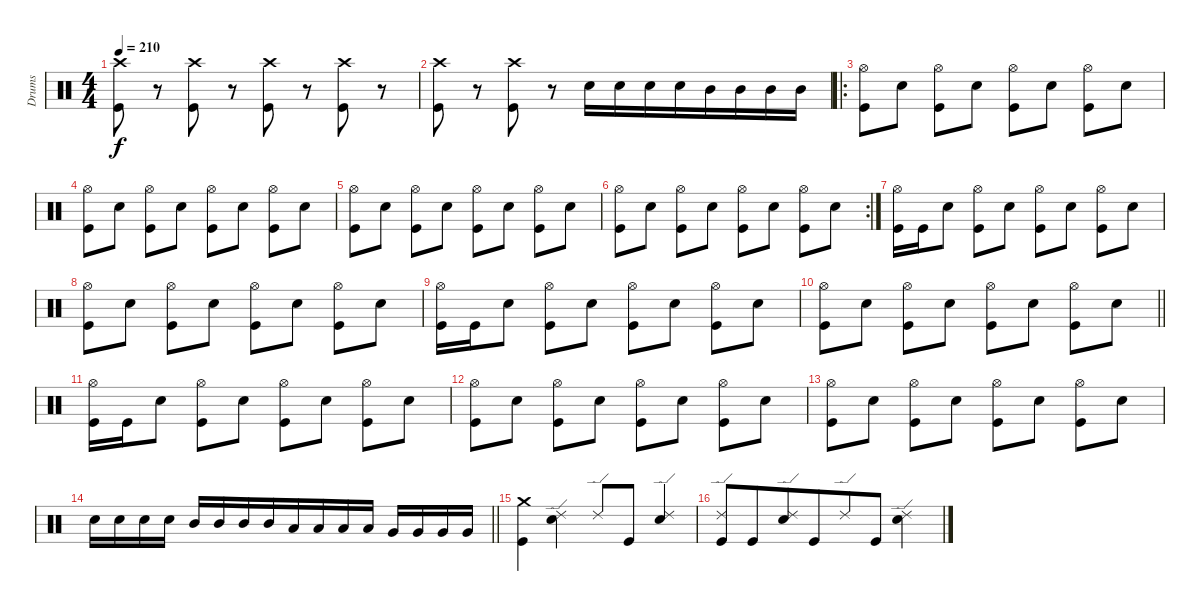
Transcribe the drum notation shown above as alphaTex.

\track ("Drums" "Drums") {instrument percussion}
\staff {score}
\articulation defaults
\ts (4 4)
\tempo 210
\clef neutral
\ks c
("Crash high (hit)" "Kick (hit)").8{dy f} r.8 ("Crash high (hit)" "Kick (hit)").8 r.8 ("Crash high (hit)" "Kick (hit)").8 r.8 ("Crash high (hit)" "Kick (hit)").8 r.8 |
("Crash high (hit)" "Kick (hit)").8 r.8 ("Crash high (hit)" "Kick (hit)").8 r.8{beam merge} "Electric Snare (hit)".16{beam merge} "Electric Snare (hit)".16 "Electric Snare (hit)".16 "Electric Snare (hit)".16{beam merge} "Mid Tom (hit)".16 "Mid Tom (hit)".16 "Mid Tom (hit)".16 "Mid Tom (hit)".16 |
\ro
("Hi-Hat (open)" "Kick (hit)").8 "Electric Snare (hit)".8 ("Hi-Hat (open)" "Kick (hit)").8 "Electric Snare (hit)".8 ("Hi-Hat (open)" "Kick (hit)").8 "Electric Snare (hit)".8 ("Hi-Hat (open)" "Kick (hit)").8 "Electric Snare (hit)".8 |
("Hi-Hat (open)" "Kick (hit)").8 "Electric Snare (hit)".8 ("Hi-Hat (open)" "Kick (hit)").8 "Electric Snare (hit)".8 ("Hi-Hat (open)" "Kick (hit)").8 "Electric Snare (hit)".8 ("Hi-Hat (open)" "Kick (hit)").8 "Electric Snare (hit)".8 |
("Hi-Hat (open)" "Kick (hit)").8 "Electric Snare (hit)".8 ("Hi-Hat (open)" "Kick (hit)").8 "Electric Snare (hit)".8 ("Hi-Hat (open)" "Kick (hit)").8 "Electric Snare (hit)".8 ("Hi-Hat (open)" "Kick (hit)").8 "Electric Snare (hit)".8 |
\rc 2
("Hi-Hat (open)" "Kick (hit)").8 "Electric Snare (hit)".8 ("Hi-Hat (open)" "Kick (hit)").8 "Electric Snare (hit)".8 ("Hi-Hat (open)" "Kick (hit)").8 "Electric Snare (hit)".8 ("Hi-Hat (open)" "Kick (hit)").8 "Electric Snare (hit)".8 |
("Hi-Hat (open)" "Kick (hit)").16 "Kick (hit)".16{beam merge} "Electric Snare (hit)".8 ("Hi-Hat (open)" "Kick (hit)").8 "Electric Snare (hit)".8 ("Hi-Hat (open)" "Kick (hit)").8 "Electric Snare (hit)".8 ("Hi-Hat (open)" "Kick (hit)").8 "Electric Snare (hit)".8 |
("Hi-Hat (open)" "Kick (hit)").8 "Electric Snare (hit)".8 ("Hi-Hat (open)" "Kick (hit)").8 "Electric Snare (hit)".8 ("Hi-Hat (open)" "Kick (hit)").8 "Electric Snare (hit)".8 ("Hi-Hat (open)" "Kick (hit)").8 "Electric Snare (hit)".8 |
("Hi-Hat (open)" "Kick (hit)").16 "Kick (hit)".16{beam merge} "Electric Snare (hit)".8 ("Hi-Hat (open)" "Kick (hit)").8 "Electric Snare (hit)".8 ("Hi-Hat (open)" "Kick (hit)").8 "Electric Snare (hit)".8 ("Hi-Hat (open)" "Kick (hit)").8 "Electric Snare (hit)".8 |
\barLineRight lightlight
("Hi-Hat (open)" "Kick (hit)").8 "Electric Snare (hit)".8 ("Hi-Hat (open)" "Kick (hit)").8 "Electric Snare (hit)".8 ("Hi-Hat (open)" "Kick (hit)").8 "Electric Snare (hit)".8 ("Hi-Hat (open)" "Kick (hit)").8 "Electric Snare (hit)".8 |
("Hi-Hat (open)" "Kick (hit)").16 "Kick (hit)".16{beam merge} "Electric Snare (hit)".8 ("Hi-Hat (open)" "Kick (hit)").8 "Electric Snare (hit)".8 ("Hi-Hat (open)" "Kick (hit)").8 "Electric Snare (hit)".8 ("Hi-Hat (open)" "Kick (hit)").8 "Electric Snare (hit)".8 |
("Hi-Hat (open)" "Kick (hit)").8 "Electric Snare (hit)".8 ("Hi-Hat (open)" "Kick (hit)").8 "Electric Snare (hit)".8 ("Hi-Hat (open)" "Kick (hit)").8 "Electric Snare (hit)".8 ("Hi-Hat (open)" "Kick (hit)").8 "Electric Snare (hit)".8 |
("Hi-Hat (open)" "Kick (hit)").8 "Electric Snare (hit)".8 ("Hi-Hat (open)" "Kick (hit)").8 "Electric Snare (hit)".8 ("Hi-Hat (open)" "Kick (hit)").8 "Electric Snare (hit)".8 ("Hi-Hat (open)" "Kick (hit)").8 "Electric Snare (hit)".8 |
\barLineRight lightlight "Electric Snare (hit)".16 "Electric Snare (hit)".16 "Electric Snare (hit)".16 "Electric Snare (hit)".16 "Mid Tom (hit)".16{beam merge} "Mid Tom (hit)".16 "Mid Tom (hit)".16 "Mid Tom (hit)".16{beam merge} "Low Tom (hit)".16 "Low Tom (hit)".16 "Low Tom (hit)".16 "Low Tom (hit)".16 "Very Low Tom (hit)".16 "Very Low Tom (hit)".16 "Very Low Tom (hit)".16{beam merge} "Very Low Tom (hit)".16
|
("Crash medium (hit)" "Kick (hit)").4 ("Ride (edge) 2" "Electric Snare (hit)").4 "Ride (edge) 2".8 "Kick (hit)".8{beam merge} ("Ride (edge) 2" "Electric Snare (hit)").4 |
("Ride (edge) 2" "Kick (hit)").8 "Kick (hit)".8{beam merge} ("Ride (edge) 2" "Electric Snare (hit)").8{beam merge} "Kick (hit)".8{beam merge} "Ride (edge) 2".8 "Kick (hit)".8 ("Ride (edge) 2" "Electric Snare (hit)").4
